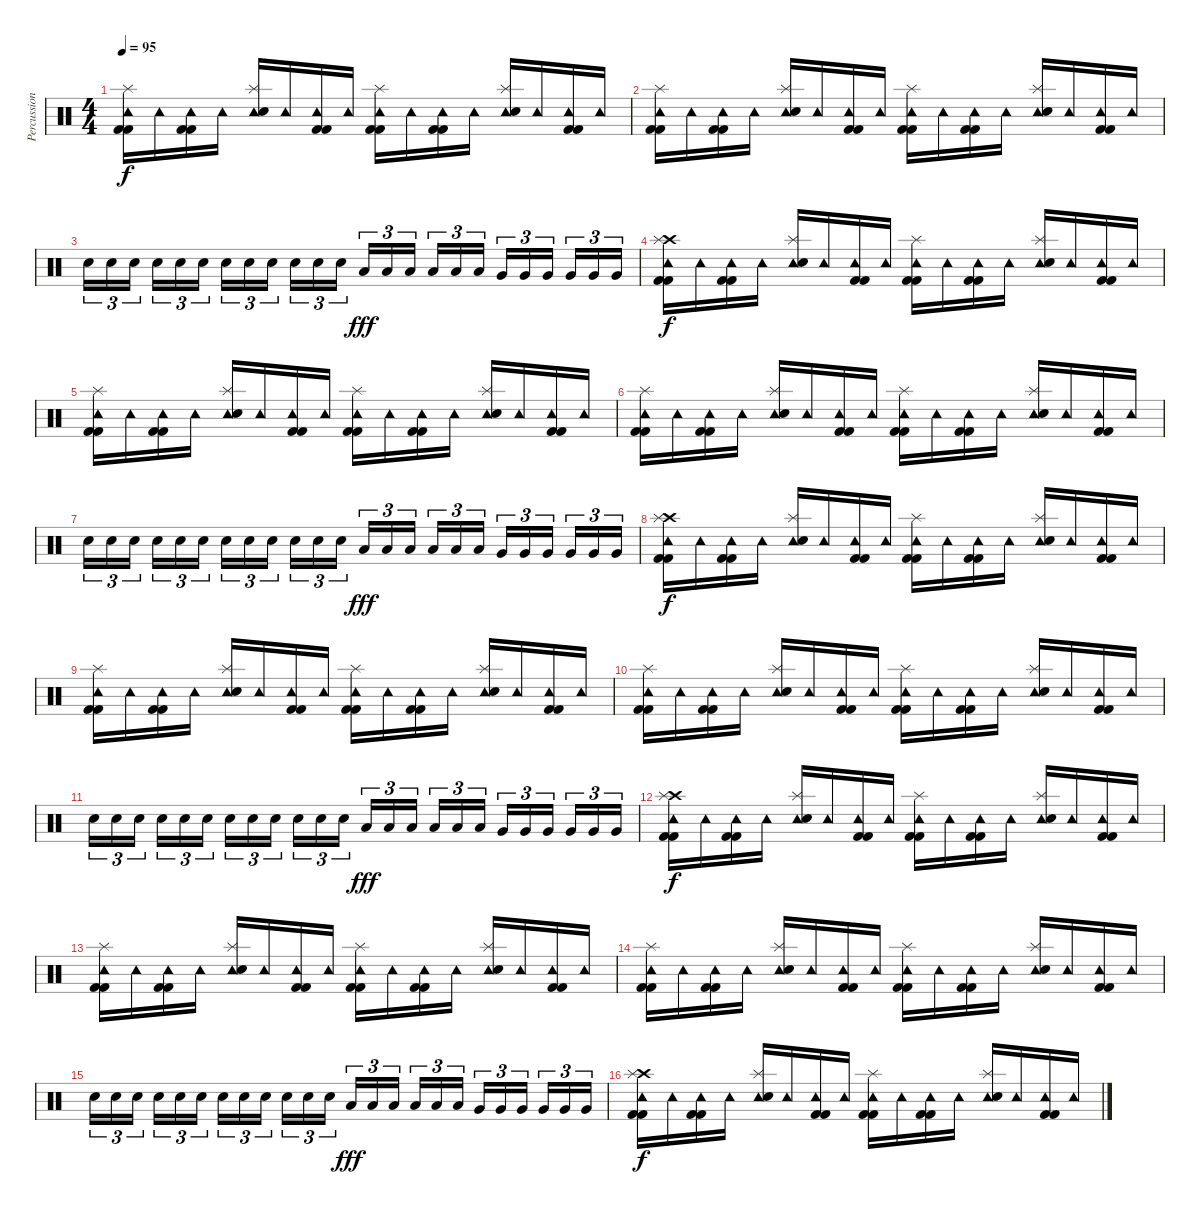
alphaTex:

\track ("Percussion" "Percussion") {instrument percussion}
\staff {score}
\articulation defaults
\ts (4 4)
\tempo 95
\clef neutral
\ks c
("Tambourine (hit)" "Kick (hit) 2" "Kick (hit) 2" "Splash (hit)").16{dy f} "Tambourine (hit)".16 ("Tambourine (hit)" "Kick (hit) 2" "Kick (hit) 2").16 "Tambourine (hit)".16 ("Tambourine (hit)" "Electric Snare (hit)" "Splash (hit)").16 "Tambourine (hit)".16 ("Tambourine (hit)" "Kick (hit) 2" "Kick (hit) 2").16 "Tambourine (hit)".16 ("Tambourine (hit)" "Kick (hit) 2" "Kick (hit) 2" "Splash (hit)").16 "Tambourine (hit)".16 ("Tambourine (hit)" "Kick (hit) 2" "Kick (hit) 2").16 "Tambourine (hit)".16 ("Tambourine (hit)" "Electric Snare (hit)" "Splash (hit)").16 "Tambourine (hit)".16 ("Tambourine (hit)" "Kick (hit) 2" "Kick (hit) 2").16 "Tambourine (hit)".16 |
("Tambourine (hit)" "Kick (hit) 2" "Kick (hit) 2" "Splash (hit)").16 "Tambourine (hit)".16 ("Tambourine (hit)" "Kick (hit) 2" "Kick (hit) 2").16 "Tambourine (hit)".16 ("Tambourine (hit)" "Electric Snare (hit)" "Splash (hit)").16 "Tambourine (hit)".16 ("Tambourine (hit)" "Kick (hit) 2" "Kick (hit) 2").16 "Tambourine (hit)".16 ("Tambourine (hit)" "Kick (hit) 2" "Kick (hit) 2" "Splash (hit)").16 "Tambourine (hit)".16 ("Tambourine (hit)" "Kick (hit) 2" "Kick (hit) 2").16 "Tambourine (hit)".16 ("Tambourine (hit)" "Electric Snare (hit)" "Splash (hit)").16 "Tambourine (hit)".16 ("Tambourine (hit)" "Kick (hit) 2" "Kick (hit) 2").16 "Tambourine (hit)".16 |
"Electric Snare (hit)".16{tu (3 2)} "Electric Snare (hit)".16{tu (3 2)} "Electric Snare (hit)".16{tu (3 2)} "Electric Snare (hit)".16{tu (3 2)} "Electric Snare (hit)".16{tu (3 2)} "Electric Snare (hit)".16{tu (3 2)} "Snare (hit) 2".16{tu (3 2)} "Snare (hit) 2".16{tu (3 2)} "Snare (hit) 2".16{tu (3 2)} "Snare (hit) 2".16{tu (3 2)} "Snare (hit) 2".16{tu (3 2)} "Snare (hit) 2".16{tu (3 2)} "Low Tom (hit)".16{tu (3 2) dy fff} "Low Tom (hit)".16{tu (3 2)} "Low Tom (hit)".16{tu (3 2)} "Low Tom (hit)".16{tu (3 2)} "Low Tom (hit)".16{tu (3 2)} "Low Tom (hit)".16{tu (3 2)} "Very Low Tom (hit)".16{tu (3 2)} "Very Low Tom (hit)".16{tu (3 2)} "Very Low Tom (hit)".16{tu (3 2)} "Very Low Tom (hit)".16{tu (3 2)} "Very Low Tom (hit)".16{tu (3 2)} "Very Low Tom (hit)".16{tu (3 2)} |
("Tambourine (hit)" "Crash high (hit)" "Kick (hit) 2" "Kick (hit) 2" "Splash (hit)").16{dy f} "Tambourine (hit)".16 ("Tambourine (hit)" "Kick (hit) 2" "Kick (hit) 2").16 "Tambourine (hit)".16 ("Tambourine (hit)" "Electric Snare (hit)" "Splash (hit)").16 "Tambourine (hit)".16 ("Tambourine (hit)" "Kick (hit) 2" "Kick (hit) 2").16 "Tambourine (hit)".16 ("Tambourine (hit)" "Kick (hit) 2" "Kick (hit) 2" "Splash (hit)").16 "Tambourine (hit)".16 ("Tambourine (hit)" "Kick (hit) 2" "Kick (hit) 2").16 "Tambourine (hit)".16 ("Tambourine (hit)" "Electric Snare (hit)" "Splash (hit)").16 "Tambourine (hit)".16 ("Tambourine (hit)" "Kick (hit) 2" "Kick (hit) 2").16 "Tambourine (hit)".16 |
("Tambourine (hit)" "Kick (hit) 2" "Kick (hit) 2" "Splash (hit)").16 "Tambourine (hit)".16 ("Tambourine (hit)" "Kick (hit) 2" "Kick (hit) 2").16 "Tambourine (hit)".16 ("Tambourine (hit)" "Electric Snare (hit)" "Splash (hit)").16 "Tambourine (hit)".16 ("Tambourine (hit)" "Kick (hit) 2" "Kick (hit) 2").16 "Tambourine (hit)".16 ("Tambourine (hit)" "Kick (hit) 2" "Kick (hit) 2" "Splash (hit)").16 "Tambourine (hit)".16 ("Tambourine (hit)" "Kick (hit) 2" "Kick (hit) 2").16 "Tambourine (hit)".16 ("Tambourine (hit)" "Electric Snare (hit)" "Splash (hit)").16 "Tambourine (hit)".16 ("Tambourine (hit)" "Kick (hit) 2" "Kick (hit) 2").16 "Tambourine (hit)".16 |
("Tambourine (hit)" "Kick (hit) 2" "Kick (hit) 2" "Splash (hit)").16 "Tambourine (hit)".16 ("Tambourine (hit)" "Kick (hit) 2" "Kick (hit) 2").16 "Tambourine (hit)".16 ("Tambourine (hit)" "Electric Snare (hit)" "Splash (hit)").16 "Tambourine (hit)".16 ("Tambourine (hit)" "Kick (hit) 2" "Kick (hit) 2").16 "Tambourine (hit)".16 ("Tambourine (hit)" "Kick (hit) 2" "Kick (hit) 2" "Splash (hit)").16 "Tambourine (hit)".16 ("Tambourine (hit)" "Kick (hit) 2" "Kick (hit) 2").16 "Tambourine (hit)".16 ("Tambourine (hit)" "Electric Snare (hit)" "Splash (hit)").16 "Tambourine (hit)".16 ("Tambourine (hit)" "Kick (hit) 2" "Kick (hit) 2").16 "Tambourine (hit)".16 |
"Electric Snare (hit)".16{tu (3 2)} "Electric Snare (hit)".16{tu (3 2)} "Electric Snare (hit)".16{tu (3 2)} "Electric Snare (hit)".16{tu (3 2)} "Electric Snare (hit)".16{tu (3 2)} "Electric Snare (hit)".16{tu (3 2)} "Snare (hit) 2".16{tu (3 2)} "Snare (hit) 2".16{tu (3 2)} "Snare (hit) 2".16{tu (3 2)} "Snare (hit) 2".16{tu (3 2)} "Snare (hit) 2".16{tu (3 2)} "Snare (hit) 2".16{tu (3 2)} "Low Tom (hit)".16{tu (3 2) dy fff} "Low Tom (hit)".16{tu (3 2)} "Low Tom (hit)".16{tu (3 2)} "Low Tom (hit)".16{tu (3 2)} "Low Tom (hit)".16{tu (3 2)} "Low Tom (hit)".16{tu (3 2)} "Very Low Tom (hit)".16{tu (3 2)} "Very Low Tom (hit)".16{tu (3 2)} "Very Low Tom (hit)".16{tu (3 2)} "Very Low Tom (hit)".16{tu (3 2)} "Very Low Tom (hit)".16{tu (3 2)} "Very Low Tom (hit)".16{tu (3 2)} |
("Tambourine (hit)" "Crash high (hit)" "Kick (hit) 2" "Kick (hit) 2" "Splash (hit)").16{dy f} "Tambourine (hit)".16 ("Tambourine (hit)" "Kick (hit) 2" "Kick (hit) 2").16 "Tambourine (hit)".16 ("Tambourine (hit)" "Electric Snare (hit)" "Splash (hit)").16 "Tambourine (hit)".16 ("Tambourine (hit)" "Kick (hit) 2" "Kick (hit) 2").16 "Tambourine (hit)".16 ("Tambourine (hit)" "Kick (hit) 2" "Kick (hit) 2" "Splash (hit)").16 "Tambourine (hit)".16 ("Tambourine (hit)" "Kick (hit) 2" "Kick (hit) 2").16 "Tambourine (hit)".16 ("Tambourine (hit)" "Electric Snare (hit)" "Splash (hit)").16 "Tambourine (hit)".16 ("Tambourine (hit)" "Kick (hit) 2" "Kick (hit) 2").16 "Tambourine (hit)".16 |
("Tambourine (hit)" "Kick (hit) 2" "Kick (hit) 2" "Splash (hit)").16 "Tambourine (hit)".16 ("Tambourine (hit)" "Kick (hit) 2" "Kick (hit) 2").16 "Tambourine (hit)".16 ("Tambourine (hit)" "Electric Snare (hit)" "Splash (hit)").16 "Tambourine (hit)".16 ("Tambourine (hit)" "Kick (hit) 2" "Kick (hit) 2").16 "Tambourine (hit)".16 ("Tambourine (hit)" "Kick (hit) 2" "Kick (hit) 2" "Splash (hit)").16 "Tambourine (hit)".16 ("Tambourine (hit)" "Kick (hit) 2" "Kick (hit) 2").16 "Tambourine (hit)".16 ("Tambourine (hit)" "Electric Snare (hit)" "Splash (hit)").16 "Tambourine (hit)".16 ("Tambourine (hit)" "Kick (hit) 2" "Kick (hit) 2").16 "Tambourine (hit)".16 |
("Tambourine (hit)" "Kick (hit) 2" "Kick (hit) 2" "Splash (hit)").16 "Tambourine (hit)".16 ("Tambourine (hit)" "Kick (hit) 2" "Kick (hit) 2").16 "Tambourine (hit)".16 ("Tambourine (hit)" "Electric Snare (hit)" "Splash (hit)").16 "Tambourine (hit)".16 ("Tambourine (hit)" "Kick (hit) 2" "Kick (hit) 2").16 "Tambourine (hit)".16 ("Tambourine (hit)" "Kick (hit) 2" "Kick (hit) 2" "Splash (hit)").16 "Tambourine (hit)".16 ("Tambourine (hit)" "Kick (hit) 2" "Kick (hit) 2").16 "Tambourine (hit)".16 ("Tambourine (hit)" "Electric Snare (hit)" "Splash (hit)").16 "Tambourine (hit)".16 ("Tambourine (hit)" "Kick (hit) 2" "Kick (hit) 2").16 "Tambourine (hit)".16 |
"Electric Snare (hit)".16{tu (3 2)} "Electric Snare (hit)".16{tu (3 2)} "Electric Snare (hit)".16{tu (3 2)} "Electric Snare (hit)".16{tu (3 2)} "Electric Snare (hit)".16{tu (3 2)} "Electric Snare (hit)".16{tu (3 2)} "Snare (hit) 2".16{tu (3 2)} "Snare (hit) 2".16{tu (3 2)} "Snare (hit) 2".16{tu (3 2)} "Snare (hit) 2".16{tu (3 2)} "Snare (hit) 2".16{tu (3 2)} "Snare (hit) 2".16{tu (3 2)} "Low Tom (hit)".16{tu (3 2) dy fff} "Low Tom (hit)".16{tu (3 2)} "Low Tom (hit)".16{tu (3 2)} "Low Tom (hit)".16{tu (3 2)} "Low Tom (hit)".16{tu (3 2)} "Low Tom (hit)".16{tu (3 2)} "Very Low Tom (hit)".16{tu (3 2)} "Very Low Tom (hit)".16{tu (3 2)} "Very Low Tom (hit)".16{tu (3 2)} "Very Low Tom (hit)".16{tu (3 2)} "Very Low Tom (hit)".16{tu (3 2)} "Very Low Tom (hit)".16{tu (3 2)} |
("Tambourine (hit)" "Crash high (hit)" "Kick (hit) 2" "Kick (hit) 2" "Splash (hit)").16{dy f} "Tambourine (hit)".16 ("Tambourine (hit)" "Kick (hit) 2" "Kick (hit) 2").16 "Tambourine (hit)".16 ("Tambourine (hit)" "Electric Snare (hit)" "Splash (hit)").16 "Tambourine (hit)".16 ("Tambourine (hit)" "Kick (hit) 2" "Kick (hit) 2").16 "Tambourine (hit)".16 ("Tambourine (hit)" "Kick (hit) 2" "Kick (hit) 2" "Splash (hit)").16 "Tambourine (hit)".16 ("Tambourine (hit)" "Kick (hit) 2" "Kick (hit) 2").16 "Tambourine (hit)".16 ("Tambourine (hit)" "Electric Snare (hit)" "Splash (hit)").16 "Tambourine (hit)".16 ("Tambourine (hit)" "Kick (hit) 2" "Kick (hit) 2").16 "Tambourine (hit)".16 |
("Tambourine (hit)" "Kick (hit) 2" "Kick (hit) 2" "Splash (hit)").16 "Tambourine (hit)".16 ("Tambourine (hit)" "Kick (hit) 2" "Kick (hit) 2").16 "Tambourine (hit)".16 ("Tambourine (hit)" "Electric Snare (hit)" "Splash (hit)").16 "Tambourine (hit)".16 ("Tambourine (hit)" "Kick (hit) 2" "Kick (hit) 2").16 "Tambourine (hit)".16 ("Tambourine (hit)" "Kick (hit) 2" "Kick (hit) 2" "Splash (hit)").16 "Tambourine (hit)".16 ("Tambourine (hit)" "Kick (hit) 2" "Kick (hit) 2").16 "Tambourine (hit)".16 ("Tambourine (hit)" "Electric Snare (hit)" "Splash (hit)").16 "Tambourine (hit)".16 ("Tambourine (hit)" "Kick (hit) 2" "Kick (hit) 2").16 "Tambourine (hit)".16 |
("Tambourine (hit)" "Kick (hit) 2" "Kick (hit) 2" "Splash (hit)").16 "Tambourine (hit)".16 ("Tambourine (hit)" "Kick (hit) 2" "Kick (hit) 2").16 "Tambourine (hit)".16 ("Tambourine (hit)" "Electric Snare (hit)" "Splash (hit)").16 "Tambourine (hit)".16 ("Tambourine (hit)" "Kick (hit) 2" "Kick (hit) 2").16 "Tambourine (hit)".16 ("Tambourine (hit)" "Kick (hit) 2" "Kick (hit) 2" "Splash (hit)").16 "Tambourine (hit)".16 ("Tambourine (hit)" "Kick (hit) 2" "Kick (hit) 2").16 "Tambourine (hit)".16 ("Tambourine (hit)" "Electric Snare (hit)" "Splash (hit)").16 "Tambourine (hit)".16 ("Tambourine (hit)" "Kick (hit) 2" "Kick (hit) 2").16 "Tambourine (hit)".16 |
"Electric Snare (hit)".16{tu (3 2)} "Electric Snare (hit)".16{tu (3 2)} "Electric Snare (hit)".16{tu (3 2)} "Electric Snare (hit)".16{tu (3 2)} "Electric Snare (hit)".16{tu (3 2)} "Electric Snare (hit)".16{tu (3 2)} "Snare (hit) 2".16{tu (3 2)} "Snare (hit) 2".16{tu (3 2)} "Snare (hit) 2".16{tu (3 2)} "Snare (hit) 2".16{tu (3 2)} "Snare (hit) 2".16{tu (3 2)} "Snare (hit) 2".16{tu (3 2)} "Low Tom (hit)".16{tu (3 2) dy fff} "Low Tom (hit)".16{tu (3 2)} "Low Tom (hit)".16{tu (3 2)} "Low Tom (hit)".16{tu (3 2)} "Low Tom (hit)".16{tu (3 2)} "Low Tom (hit)".16{tu (3 2)} "Very Low Tom (hit)".16{tu (3 2)} "Very Low Tom (hit)".16{tu (3 2)} "Very Low Tom (hit)".16{tu (3 2)} "Very Low Tom (hit)".16{tu (3 2)} "Very Low Tom (hit)".16{tu (3 2)} "Very Low Tom (hit)".16{tu (3 2)} |
("Tambourine (hit)" "Crash high (hit)" "Kick (hit) 2" "Kick (hit) 2" "Splash (hit)").16{dy f} "Tambourine (hit)".16 ("Tambourine (hit)" "Kick (hit) 2" "Kick (hit) 2").16 "Tambourine (hit)".16 ("Tambourine (hit)" "Electric Snare (hit)" "Splash (hit)").16 "Tambourine (hit)".16 ("Tambourine (hit)" "Kick (hit) 2" "Kick (hit) 2").16 "Tambourine (hit)".16 ("Tambourine (hit)" "Kick (hit) 2" "Kick (hit) 2" "Splash (hit)").16 "Tambourine (hit)".16 ("Tambourine (hit)" "Kick (hit) 2" "Kick (hit) 2").16 "Tambourine (hit)".16 ("Tambourine (hit)" "Electric Snare (hit)" "Splash (hit)").16 "Tambourine (hit)".16 ("Tambourine (hit)" "Kick (hit) 2" "Kick (hit) 2").16 "Tambourine (hit)".16
